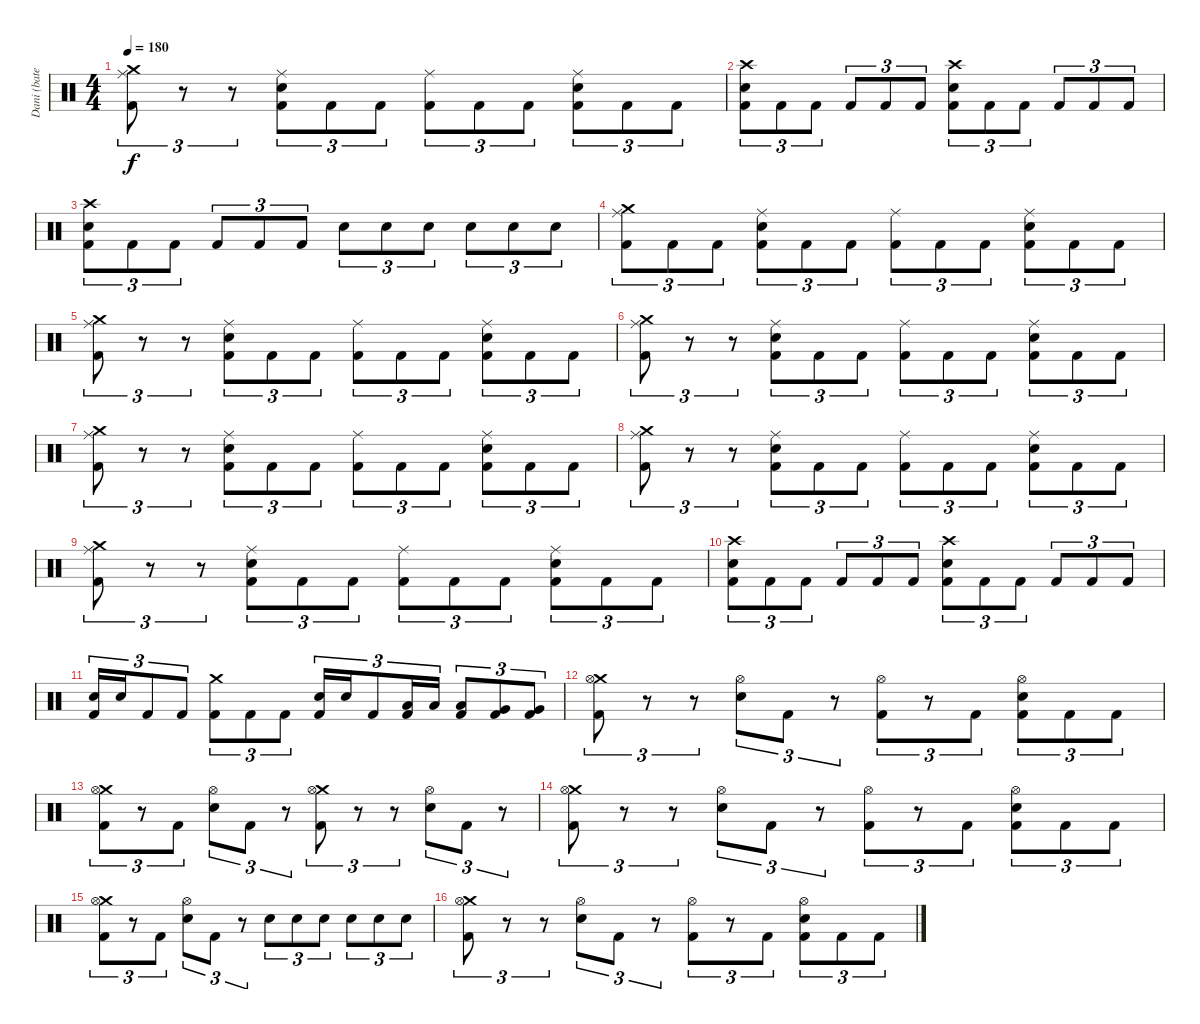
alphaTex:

\track ("Dani (bateria)" "Dani (bate") {instrument percussion}
\staff {score}
\articulation defaults
\ts (4 4)
\tempo 180
\clef neutral
\ks c
("Crash medium (hit)" "Ride (middle)" "Kick (hit) 2").8{tu (3 2) dy f} r.8{tu (3 2)} r.8{tu (3 2)} ("Ride (middle)" "Electric Snare (hit)" "Kick (hit) 2").8{tu (3 2)} "Kick (hit) 2".8{tu (3 2)} "Kick (hit) 2".8{tu (3 2)} ("Ride (middle)" "Kick (hit) 2").8{tu (3 2)} "Kick (hit) 2".8{tu (3 2)} "Kick (hit) 2".8{tu (3 2)} ("Ride (middle)" "Electric Snare (hit)" "Kick (hit) 2").8{tu (3 2)} "Kick (hit) 2".8{tu (3 2)} "Kick (hit) 2".8{tu (3 2)} |
("Crash high (hit)" "Electric Snare (hit)" "Kick (hit) 2").8{tu (3 2)} "Kick (hit) 2".8{tu (3 2)} "Kick (hit) 2".8{tu (3 2)} "Kick (hit) 2".8{tu (3 2)} "Kick (hit) 2".8{tu (3 2)} "Kick (hit) 2".8{tu (3 2)} ("Crash high (hit)" "Electric Snare (hit)" "Kick (hit) 2").8{tu (3 2)} "Kick (hit) 2".8{tu (3 2)} "Kick (hit) 2".8{tu (3 2)} "Kick (hit) 2".8{tu (3 2)} "Kick (hit) 2".8{tu (3 2)} "Kick (hit) 2".8{tu (3 2)} |
("Crash high (hit)" "Electric Snare (hit)" "Kick (hit) 2").8{tu (3 2)} "Kick (hit) 2".8{tu (3 2)} "Kick (hit) 2".8{tu (3 2)} "Kick (hit) 2".8{tu (3 2)} "Kick (hit) 2".8{tu (3 2)} "Kick (hit) 2".8{tu (3 2)} "Electric Snare (hit)".8{tu (3 2)} "Electric Snare (hit)".8{tu (3 2)} "Electric Snare (hit)".8{tu (3 2)} "Electric Snare (hit)".8{tu (3 2)} "Electric Snare (hit)".8{tu (3 2)} "Electric Snare (hit)".8{tu (3 2)} |
("Crash medium (hit)" "Ride (middle)" "Kick (hit) 2").8{tu (3 2)} "Kick (hit) 2".8{tu (3 2)} "Kick (hit) 2".8{tu (3 2)} ("Ride (middle)" "Electric Snare (hit)" "Kick (hit) 2").8{tu (3 2)} "Kick (hit) 2".8{tu (3 2)} "Kick (hit) 2".8{tu (3 2)} ("Ride (middle)" "Kick (hit) 2").8{tu (3 2)} "Kick (hit) 2".8{tu (3 2)} "Kick (hit) 2".8{tu (3 2)} ("Ride (middle)" "Electric Snare (hit)" "Kick (hit) 2").8{tu (3 2)} "Kick (hit) 2".8{tu (3 2)} "Kick (hit) 2".8{tu (3 2)} |
("Crash medium (hit)" "Ride (middle)" "Kick (hit) 2").8{tu (3 2)} r.8{tu (3 2)} r.8{tu (3 2)} ("Ride (middle)" "Electric Snare (hit)" "Kick (hit) 2").8{tu (3 2)} "Kick (hit) 2".8{tu (3 2)} "Kick (hit) 2".8{tu (3 2)} ("Ride (middle)" "Kick (hit) 2").8{tu (3 2)} "Kick (hit) 2".8{tu (3 2)} "Kick (hit) 2".8{tu (3 2)} ("Ride (middle)" "Electric Snare (hit)" "Kick (hit) 2").8{tu (3 2)} "Kick (hit) 2".8{tu (3 2)} "Kick (hit) 2".8{tu (3 2)} |
("Crash medium (hit)" "Ride (middle)" "Kick (hit) 2").8{tu (3 2)} r.8{tu (3 2)} r.8{tu (3 2)} ("Ride (middle)" "Electric Snare (hit)" "Kick (hit) 2").8{tu (3 2)} "Kick (hit) 2".8{tu (3 2)} "Kick (hit) 2".8{tu (3 2)} ("Ride (middle)" "Kick (hit) 2").8{tu (3 2)} "Kick (hit) 2".8{tu (3 2)} "Kick (hit) 2".8{tu (3 2)} ("Ride (middle)" "Electric Snare (hit)" "Kick (hit) 2").8{tu (3 2)} "Kick (hit) 2".8{tu (3 2)} "Kick (hit) 2".8{tu (3 2)} |
("Crash medium (hit)" "Ride (middle)" "Kick (hit) 2").8{tu (3 2)} r.8{tu (3 2)} r.8{tu (3 2)} ("Ride (middle)" "Electric Snare (hit)" "Kick (hit) 2").8{tu (3 2)} "Kick (hit) 2".8{tu (3 2)} "Kick (hit) 2".8{tu (3 2)} ("Ride (middle)" "Kick (hit) 2").8{tu (3 2)} "Kick (hit) 2".8{tu (3 2)} "Kick (hit) 2".8{tu (3 2)} ("Ride (middle)" "Electric Snare (hit)" "Kick (hit) 2").8{tu (3 2)} "Kick (hit) 2".8{tu (3 2)} "Kick (hit) 2".8{tu (3 2)} |
("Crash medium (hit)" "Ride (middle)" "Kick (hit) 2").8{tu (3 2)} r.8{tu (3 2)} r.8{tu (3 2)} ("Ride (middle)" "Electric Snare (hit)" "Kick (hit) 2").8{tu (3 2)} "Kick (hit) 2".8{tu (3 2)} "Kick (hit) 2".8{tu (3 2)} ("Ride (middle)" "Kick (hit) 2").8{tu (3 2)} "Kick (hit) 2".8{tu (3 2)} "Kick (hit) 2".8{tu (3 2)} ("Ride (middle)" "Electric Snare (hit)" "Kick (hit) 2").8{tu (3 2)} "Kick (hit) 2".8{tu (3 2)} "Kick (hit) 2".8{tu (3 2)} |
("Crash medium (hit)" "Ride (middle)" "Kick (hit) 2").8{tu (3 2)} r.8{tu (3 2)} r.8{tu (3 2)} ("Ride (middle)" "Electric Snare (hit)" "Kick (hit) 2").8{tu (3 2)} "Kick (hit) 2".8{tu (3 2)} "Kick (hit) 2".8{tu (3 2)} ("Ride (middle)" "Kick (hit) 2").8{tu (3 2)} "Kick (hit) 2".8{tu (3 2)} "Kick (hit) 2".8{tu (3 2)} ("Ride (middle)" "Electric Snare (hit)" "Kick (hit) 2").8{tu (3 2)} "Kick (hit) 2".8{tu (3 2)} "Kick (hit) 2".8{tu (3 2)} |
("Crash high (hit)" "Electric Snare (hit)" "Kick (hit) 2").8{tu (3 2)} "Kick (hit) 2".8{tu (3 2)} "Kick (hit) 2".8{tu (3 2)} "Kick (hit) 2".8{tu (3 2)} "Kick (hit) 2".8{tu (3 2)} "Kick (hit) 2".8{tu (3 2)} ("Crash high (hit)" "Electric Snare (hit)" "Kick (hit) 2").8{tu (3 2)} "Kick (hit) 2".8{tu (3 2)} "Kick (hit) 2".8{tu (3 2)} "Kick (hit) 2".8{tu (3 2)} "Kick (hit) 2".8{tu (3 2)} "Kick (hit) 2".8{tu (3 2)} |
("Electric Snare (hit)" "Kick (hit) 2").16{tu (3 2)} "Electric Snare (hit)".16{tu (3 2)} "Kick (hit) 2".8{tu (3 2)} "Kick (hit) 2".8{tu (3 2)} ("Crash medium (hit)" "Kick (hit) 2").8{tu (3 2)} "Kick (hit) 2".8{tu (3 2)} "Kick (hit) 2".8{tu (3 2)} ("Electric Snare (hit)" "Kick (hit) 2").16{tu (3 2)} "Electric Snare (hit)".16{tu (3 2)} "Kick (hit) 2".8{tu (3 2)} ("Low Tom (hit)" "Kick (hit) 2").16{tu (3 2)} "Low Tom (hit)".16{tu (3 2)} ("Low Tom (hit)" "Kick (hit) 2").8{tu (3 2)} ("Very Low Tom (hit)" "Kick (hit) 2").8{tu (3 2)} ("Very Low Tom (hit)" "Kick (hit) 2").8{tu (3 2)} |
("Crash medium (hit)" "Hi-Hat (open)" "Kick (hit) 2").8{tu (3 2)} r.8{tu (3 2)} r.8{tu (3 2)} ("Hi-Hat (open)" "Electric Snare (hit)").8{tu (3 2)} "Kick (hit) 2".8{tu (3 2)} r.8{tu (3 2)} ("Hi-Hat (open)" "Kick (hit) 2").8{tu (3 2)} r.8{tu (3 2)} "Kick (hit) 2".8{tu (3 2)} ("Hi-Hat (open)" "Electric Snare (hit)" "Kick (hit) 2").8{tu (3 2)} "Kick (hit) 2".8{tu (3 2)} "Kick (hit) 2".8{tu (3 2)} |
("Crash medium (hit)" "Hi-Hat (open)" "Kick (hit) 2").8{tu (3 2)} r.8{tu (3 2)} "Kick (hit) 2".8{tu (3 2)} ("Hi-Hat (open)" "Electric Snare (hit)").8{tu (3 2)} "Kick (hit) 2".8{tu (3 2)} r.8{tu (3 2)} ("Crash medium (hit)" "Hi-Hat (open)" "Kick (hit) 2").8{tu (3 2)} r.8{tu (3 2)} r.8{tu (3 2)} ("Hi-Hat (open)" "Electric Snare (hit)").8{tu (3 2)} "Kick (hit) 2".8{tu (3 2)} r.8{tu (3 2)} |
("Crash medium (hit)" "Hi-Hat (open)" "Kick (hit) 2").8{tu (3 2)} r.8{tu (3 2)} r.8{tu (3 2)} ("Hi-Hat (open)" "Electric Snare (hit)").8{tu (3 2)} "Kick (hit) 2".8{tu (3 2)} r.8{tu (3 2)} ("Hi-Hat (open)" "Kick (hit) 2").8{tu (3 2)} r.8{tu (3 2)} "Kick (hit) 2".8{tu (3 2)} ("Hi-Hat (open)" "Electric Snare (hit)" "Kick (hit) 2").8{tu (3 2)} "Kick (hit) 2".8{tu (3 2)} "Kick (hit) 2".8{tu (3 2)} |
("Crash medium (hit)" "Hi-Hat (open)" "Kick (hit) 2").8{tu (3 2)} r.8{tu (3 2)} "Kick (hit) 2".8{tu (3 2)} ("Hi-Hat (open)" "Electric Snare (hit)").8{tu (3 2)} "Kick (hit) 2".8{tu (3 2)} r.8{tu (3 2)} "Electric Snare (hit)".8{tu (3 2)} "Electric Snare (hit)".8{tu (3 2)} "Electric Snare (hit)".8{tu (3 2)} "Electric Snare (hit)".8{tu (3 2)} "Electric Snare (hit)".8{tu (3 2)} "Electric Snare (hit)".8{tu (3 2)} |
("Crash medium (hit)" "Hi-Hat (open)" "Kick (hit) 2").8{tu (3 2)} r.8{tu (3 2)} r.8{tu (3 2)} ("Hi-Hat (open)" "Electric Snare (hit)").8{tu (3 2)} "Kick (hit) 2".8{tu (3 2)} r.8{tu (3 2)} ("Hi-Hat (open)" "Kick (hit) 2").8{tu (3 2)} r.8{tu (3 2)} "Kick (hit) 2".8{tu (3 2)} ("Hi-Hat (open)" "Electric Snare (hit)" "Kick (hit) 2").8{tu (3 2)} "Kick (hit) 2".8{tu (3 2)} "Kick (hit) 2".8{tu (3 2)}
